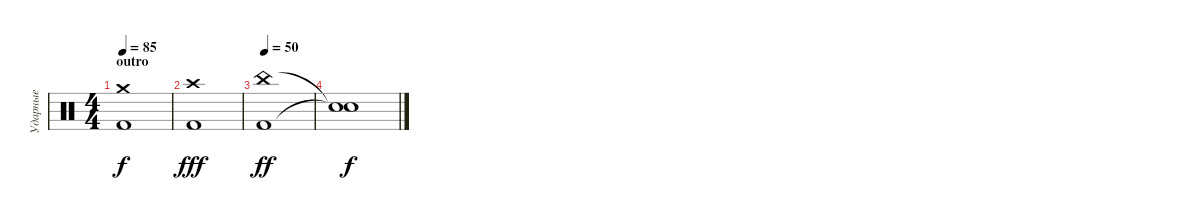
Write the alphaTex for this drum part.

\track ("Ударные" "Ударные") {instrument percussion}
\staff {score}
\articulation defaults
\ts (4 4)
\section ("" "outro")
\tempo 85
\clef neutral
\ks c
("Crash medium (hit)" "Kick (hit) 2").1{dy f} |
("Crash high (hit)" "Kick (hit) 2").1{dy fff} |
\tempo 50
("China (hit)" "Kick (hit) 2").1{dy ff} |
("Snare (hit)"{t} "Snare (hit)"{t}).1{dy f}
